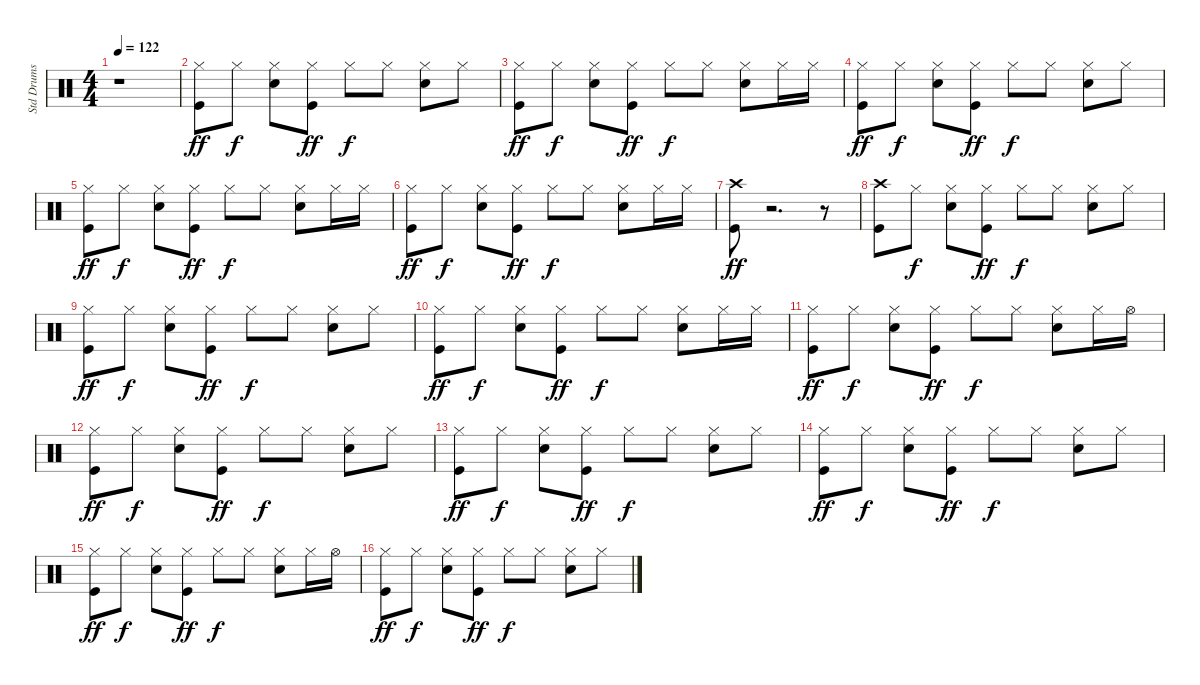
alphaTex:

\track ("Std Drums" "Std Drums") {instrument percussion}
\staff {score}
\articulation defaults
\ts (4 4)
\tempo 122
\clef neutral
\ks c
r.1{dy ff} |
("Hi-Hat (closed)" "Kick (hit)").8 "Hi-Hat (closed)".8{dy f} ("Hi-Hat (closed)" "Snare (hit) 2").8 ("Hi-Hat (closed)" "Kick (hit)").8{dy ff} "Hi-Hat (closed)".8{dy f} "Hi-Hat (closed)".8 ("Hi-Hat (closed)" "Snare (hit) 2").8 "Hi-Hat (closed)".8 |
("Hi-Hat (closed)" "Kick (hit)").8{dy ff} "Hi-Hat (closed)".8{dy f} ("Hi-Hat (closed)" "Snare (hit) 2").8 ("Hi-Hat (closed)" "Kick (hit)").8{dy ff} "Hi-Hat (closed)".8{dy f} "Hi-Hat (closed)".8 ("Hi-Hat (closed)" "Snare (hit) 2").8 "Hi-Hat (closed)".16 "Hi-Hat (closed)".16 |
("Hi-Hat (closed)" "Kick (hit)").8{dy ff} "Hi-Hat (closed)".8{dy f} ("Hi-Hat (closed)" "Snare (hit) 2").8 ("Hi-Hat (closed)" "Kick (hit)").8{dy ff} "Hi-Hat (closed)".8{dy f} "Hi-Hat (closed)".8 ("Hi-Hat (closed)" "Snare (hit) 2").8 "Hi-Hat (closed)".8 |
("Hi-Hat (closed)" "Kick (hit)").8{dy ff} "Hi-Hat (closed)".8{dy f} ("Hi-Hat (closed)" "Snare (hit) 2").8 ("Hi-Hat (closed)" "Kick (hit)").8{dy ff} "Hi-Hat (closed)".8{dy f} "Hi-Hat (closed)".8 ("Hi-Hat (closed)" "Snare (hit) 2").8 "Hi-Hat (closed)".16 "Hi-Hat (closed)".16 |
("Hi-Hat (closed)" "Kick (hit)").8{dy ff} "Hi-Hat (closed)".8{dy f} ("Hi-Hat (closed)" "Snare (hit) 2").8 ("Hi-Hat (closed)" "Kick (hit)").8{dy ff} "Hi-Hat (closed)".8{dy f} "Hi-Hat (closed)".8 ("Hi-Hat (closed)" "Snare (hit) 2").8 "Hi-Hat (closed)".16 "Hi-Hat (closed)".16 |
("Crash high (hit)" "Kick (hit)").8{dy ff} r.2{d} r.8 |
("Crash high (hit)" "Kick (hit)").8 "Hi-Hat (closed)".8{dy f} ("Hi-Hat (closed)" "Snare (hit) 2").8 ("Hi-Hat (closed)" "Kick (hit)").8{dy ff} "Hi-Hat (closed)".8{dy f} "Hi-Hat (closed)".8 ("Hi-Hat (closed)" "Snare (hit) 2").8 "Hi-Hat (closed)".8 |
("Hi-Hat (closed)" "Kick (hit)").8{dy ff} "Hi-Hat (closed)".8{dy f} ("Hi-Hat (closed)" "Snare (hit) 2").8 ("Hi-Hat (closed)" "Kick (hit)").8{dy ff} "Hi-Hat (closed)".8{dy f} "Hi-Hat (closed)".8 ("Hi-Hat (closed)" "Snare (hit) 2").8 "Hi-Hat (closed)".8 |
("Hi-Hat (closed)" "Kick (hit)").8{dy ff} "Hi-Hat (closed)".8{dy f} ("Hi-Hat (closed)" "Snare (hit) 2").8 ("Hi-Hat (closed)" "Kick (hit)").8{dy ff} "Hi-Hat (closed)".8{dy f} "Hi-Hat (closed)".8 ("Hi-Hat (closed)" "Snare (hit) 2").8 "Hi-Hat (closed)".16 "Hi-Hat (closed)".16 |
("Hi-Hat (closed)" "Kick (hit)").8{dy ff} "Hi-Hat (closed)".8{dy f} ("Hi-Hat (closed)" "Snare (hit) 2").8 ("Hi-Hat (closed)" "Kick (hit)").8{dy ff} "Hi-Hat (closed)".8{dy f} "Hi-Hat (closed)".8 ("Hi-Hat (closed)" "Snare (hit) 2").8 "Hi-Hat (closed)".16 "Hi-Hat (open)".16 |
("Hi-Hat (closed)" "Kick (hit)").8{dy ff} "Hi-Hat (closed)".8{dy f} ("Hi-Hat (closed)" "Snare (hit) 2").8 ("Hi-Hat (closed)" "Kick (hit)").8{dy ff} "Hi-Hat (closed)".8{dy f} "Hi-Hat (closed)".8 ("Hi-Hat (closed)" "Snare (hit) 2").8 "Hi-Hat (closed)".8 |
("Hi-Hat (closed)" "Kick (hit)").8{dy ff} "Hi-Hat (closed)".8{dy f} ("Hi-Hat (closed)" "Snare (hit) 2").8 ("Hi-Hat (closed)" "Kick (hit)").8{dy ff} "Hi-Hat (closed)".8{dy f} "Hi-Hat (closed)".8 ("Hi-Hat (closed)" "Snare (hit) 2").8 "Hi-Hat (closed)".8 |
("Hi-Hat (closed)" "Kick (hit)").8{dy ff} "Hi-Hat (closed)".8{dy f} ("Hi-Hat (closed)" "Snare (hit) 2").8 ("Hi-Hat (closed)" "Kick (hit)").8{dy ff} "Hi-Hat (closed)".8{dy f} "Hi-Hat (closed)".8 ("Hi-Hat (closed)" "Snare (hit) 2").8 "Hi-Hat (closed)".8 |
("Hi-Hat (closed)" "Kick (hit)").8{dy ff} "Hi-Hat (closed)".8{dy f} ("Hi-Hat (closed)" "Snare (hit) 2").8 ("Hi-Hat (closed)" "Kick (hit)").8{dy ff} "Hi-Hat (closed)".8{dy f} "Hi-Hat (closed)".8 ("Hi-Hat (closed)" "Snare (hit) 2").8 "Hi-Hat (closed)".16 "Hi-Hat (open)".16 |
("Hi-Hat (closed)" "Kick (hit)").8{dy ff} "Hi-Hat (closed)".8{dy f} ("Hi-Hat (closed)" "Snare (hit) 2").8 ("Hi-Hat (closed)" "Kick (hit)").8{dy ff} "Hi-Hat (closed)".8{dy f} "Hi-Hat (closed)".8 ("Hi-Hat (closed)" "Snare (hit) 2").8 "Hi-Hat (closed)".8
